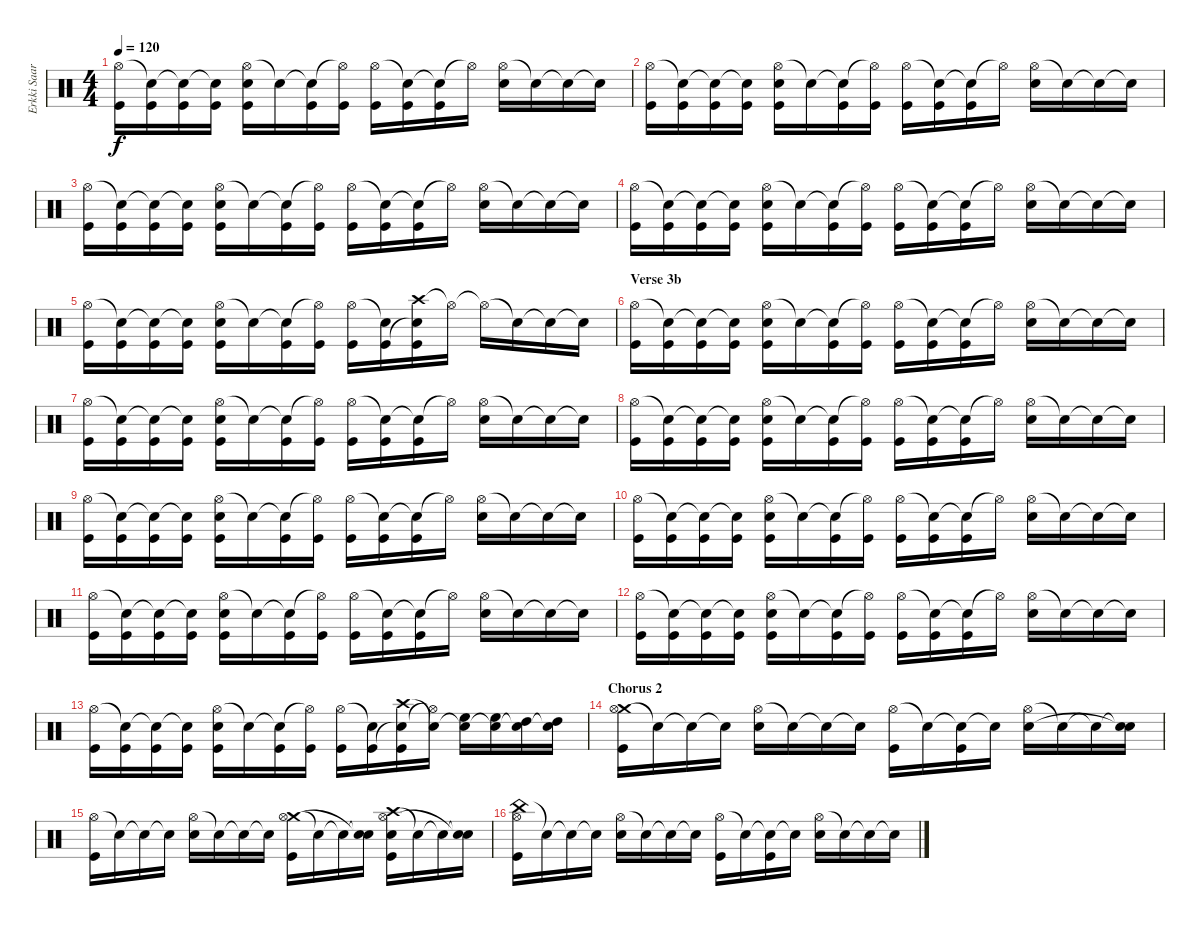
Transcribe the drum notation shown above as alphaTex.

\track ("Erkki Saarinen" "Erkki Saar") {instrument percussion}
\staff {score}
\articulation defaults
\ts (4 4)
\tempo 120
\clef neutral
\ks c
("Hi-Hat (open)" "Kick (hit)").16{dy f} ("Snare (hit)"{t} "Kick (hit)").16 ("Snare (hit)"{t} "Kick (hit)").16 ("Snare (hit)"{t} "Kick (hit)").16 ("Hi-Hat (open)" "Snare (hit) 2" "Kick (hit)").16 "Snare (hit)"{t}.16 ("Snare (hit)"{t} "Kick (hit)").16 ("Hi-Hat (open)"{t} "Kick (hit)").16 ("Hi-Hat (open)" "Kick (hit)").16 ("Snare (hit)"{t} "Kick (hit)").16 ("Snare (hit)"{t} "Kick (hit)").16 "Hi-Hat (open)"{t}.16 ("Hi-Hat (open)" "Snare (hit) 2").16 "Snare (hit)"{t}.16 "Snare (hit)"{t}.16 "Snare (hit)"{t}.16 |
("Hi-Hat (open)" "Kick (hit)").16 ("Snare (hit)"{t} "Kick (hit)").16 ("Snare (hit)"{t} "Kick (hit)").16 ("Snare (hit)"{t} "Kick (hit)").16 ("Hi-Hat (open)" "Snare (hit) 2" "Kick (hit)").16 "Snare (hit)"{t}.16 ("Snare (hit)"{t} "Kick (hit)").16 ("Hi-Hat (open)"{t} "Kick (hit)").16 ("Hi-Hat (open)" "Kick (hit)").16 ("Snare (hit)"{t} "Kick (hit)").16 ("Snare (hit)"{t} "Kick (hit)").16 "Hi-Hat (open)"{t}.16 ("Hi-Hat (open)" "Snare (hit) 2").16 "Snare (hit)"{t}.16 "Snare (hit)"{t}.16 "Snare (hit)"{t}.16 |
("Hi-Hat (open)" "Kick (hit)").16 ("Snare (hit)"{t} "Kick (hit)").16 ("Snare (hit)"{t} "Kick (hit)").16 ("Snare (hit)"{t} "Kick (hit)").16 ("Hi-Hat (open)" "Snare (hit) 2" "Kick (hit)").16 "Snare (hit)"{t}.16 ("Snare (hit)"{t} "Kick (hit)").16 ("Hi-Hat (open)"{t} "Kick (hit)").16 ("Hi-Hat (open)" "Kick (hit)").16 ("Snare (hit)"{t} "Kick (hit)").16 ("Snare (hit)"{t} "Kick (hit)").16 "Hi-Hat (open)"{t}.16 ("Hi-Hat (open)" "Snare (hit) 2").16 "Snare (hit)"{t}.16 "Snare (hit)"{t}.16 "Snare (hit)"{t}.16 |
("Hi-Hat (open)" "Kick (hit)").16 ("Snare (hit)"{t} "Kick (hit)").16 ("Snare (hit)"{t} "Kick (hit)").16 ("Snare (hit)"{t} "Kick (hit)").16 ("Hi-Hat (open)" "Snare (hit) 2" "Kick (hit)").16 "Snare (hit)"{t}.16 ("Snare (hit)"{t} "Kick (hit)").16 ("Hi-Hat (open)"{t} "Kick (hit)").16 ("Hi-Hat (open)" "Kick (hit)").16 ("Snare (hit)"{t} "Kick (hit)").16 ("Snare (hit)"{t} "Kick (hit)").16 "Hi-Hat (open)"{t}.16 ("Hi-Hat (open)" "Snare (hit) 2").16 "Snare (hit)"{t}.16 "Snare (hit)"{t}.16 "Snare (hit)"{t}.16 |
("Hi-Hat (open)" "Kick (hit)").16 ("Snare (hit)"{t} "Kick (hit)").16 ("Snare (hit)"{t} "Kick (hit)").16 ("Snare (hit)"{t} "Kick (hit)").16 ("Hi-Hat (open)" "Snare (hit) 2" "Kick (hit)").16 "Snare (hit)"{t}.16 ("Snare (hit)"{t} "Kick (hit)").16 ("Hi-Hat (open)"{t} "Kick (hit)").16 ("Hi-Hat (open)" "Kick (hit)").16 ("Snare (hit)"{t} "Kick (hit)").16 ("Crash high (hit)" "Snare (hit)"{t} "Kick (hit)").16 "Hi-Hat (open)"{t}.16 "Hi-Hat (open)"{t}.16 "Snare (hit)"{t}.16 "Snare (hit)"{t}.16 "Snare (hit)"{t}.16 |
\section ("" "Verse 3b")
("Hi-Hat (open)" "Kick (hit)").16 ("Snare (hit)"{t} "Kick (hit)").16 ("Snare (hit)"{t} "Kick (hit)").16 ("Snare (hit)"{t} "Kick (hit)").16 ("Hi-Hat (open)" "Snare (hit) 2" "Kick (hit)").16 "Snare (hit)"{t}.16 ("Snare (hit)"{t} "Kick (hit)").16 ("Hi-Hat (open)"{t} "Kick (hit)").16 ("Hi-Hat (open)" "Kick (hit)").16 ("Snare (hit)"{t} "Kick (hit)").16 ("Snare (hit)"{t} "Kick (hit)").16 "Hi-Hat (open)"{t}.16 ("Hi-Hat (open)" "Snare (hit) 2").16 "Snare (hit)"{t}.16 "Snare (hit)"{t}.16 "Snare (hit)"{t}.16 |
("Hi-Hat (open)" "Kick (hit)").16 ("Snare (hit)"{t} "Kick (hit)").16 ("Snare (hit)"{t} "Kick (hit)").16 ("Snare (hit)"{t} "Kick (hit)").16 ("Hi-Hat (open)" "Snare (hit) 2" "Kick (hit)").16 "Snare (hit)"{t}.16 ("Snare (hit)"{t} "Kick (hit)").16 ("Hi-Hat (open)"{t} "Kick (hit)").16 ("Hi-Hat (open)" "Kick (hit)").16 ("Snare (hit)"{t} "Kick (hit)").16 ("Snare (hit)"{t} "Kick (hit)").16 "Hi-Hat (open)"{t}.16 ("Hi-Hat (open)" "Snare (hit) 2").16 "Snare (hit)"{t}.16 "Snare (hit)"{t}.16 "Snare (hit)"{t}.16 |
("Hi-Hat (open)" "Kick (hit)").16 ("Snare (hit)"{t} "Kick (hit)").16 ("Snare (hit)"{t} "Kick (hit)").16 ("Snare (hit)"{t} "Kick (hit)").16 ("Hi-Hat (open)" "Snare (hit) 2" "Kick (hit)").16 "Snare (hit)"{t}.16 ("Snare (hit)"{t} "Kick (hit)").16 ("Hi-Hat (open)"{t} "Kick (hit)").16 ("Hi-Hat (open)" "Kick (hit)").16 ("Snare (hit)"{t} "Kick (hit)").16 ("Snare (hit)"{t} "Kick (hit)").16 "Hi-Hat (open)"{t}.16 ("Hi-Hat (open)" "Snare (hit) 2").16 "Snare (hit)"{t}.16 "Snare (hit)"{t}.16 "Snare (hit)"{t}.16 |
("Hi-Hat (open)" "Kick (hit)").16 ("Snare (hit)"{t} "Kick (hit)").16 ("Snare (hit)"{t} "Kick (hit)").16 ("Snare (hit)"{t} "Kick (hit)").16 ("Hi-Hat (open)" "Snare (hit) 2" "Kick (hit)").16 "Snare (hit)"{t}.16 ("Snare (hit)"{t} "Kick (hit)").16 ("Hi-Hat (open)"{t} "Kick (hit)").16 ("Hi-Hat (open)" "Kick (hit)").16 ("Snare (hit)"{t} "Kick (hit)").16 ("Snare (hit)"{t} "Kick (hit)").16 "Hi-Hat (open)"{t}.16 ("Hi-Hat (open)" "Snare (hit) 2").16 "Snare (hit)"{t}.16 "Snare (hit)"{t}.16 "Snare (hit)"{t}.16 |
("Hi-Hat (open)" "Kick (hit)").16 ("Snare (hit)"{t} "Kick (hit)").16 ("Snare (hit)"{t} "Kick (hit)").16 ("Snare (hit)"{t} "Kick (hit)").16 ("Hi-Hat (open)" "Snare (hit) 2" "Kick (hit)").16 "Snare (hit)"{t}.16 ("Snare (hit)"{t} "Kick (hit)").16 ("Hi-Hat (open)"{t} "Kick (hit)").16 ("Hi-Hat (open)" "Kick (hit)").16 ("Snare (hit)"{t} "Kick (hit)").16 ("Snare (hit)"{t} "Kick (hit)").16 "Hi-Hat (open)"{t}.16 ("Hi-Hat (open)" "Snare (hit) 2").16 "Snare (hit)"{t}.16 "Snare (hit)"{t}.16 "Snare (hit)"{t}.16 |
("Hi-Hat (open)" "Kick (hit)").16 ("Snare (hit)"{t} "Kick (hit)").16 ("Snare (hit)"{t} "Kick (hit)").16 ("Snare (hit)"{t} "Kick (hit)").16 ("Hi-Hat (open)" "Snare (hit) 2" "Kick (hit)").16 "Snare (hit)"{t}.16 ("Snare (hit)"{t} "Kick (hit)").16 ("Hi-Hat (open)"{t} "Kick (hit)").16 ("Hi-Hat (open)" "Kick (hit)").16 ("Snare (hit)"{t} "Kick (hit)").16 ("Snare (hit)"{t} "Kick (hit)").16 "Hi-Hat (open)"{t}.16 ("Hi-Hat (open)" "Snare (hit) 2").16 "Snare (hit)"{t}.16 "Snare (hit)"{t}.16 "Snare (hit)"{t}.16 |
("Hi-Hat (open)" "Kick (hit)").16 ("Snare (hit)"{t} "Kick (hit)").16 ("Snare (hit)"{t} "Kick (hit)").16 ("Snare (hit)"{t} "Kick (hit)").16 ("Hi-Hat (open)" "Snare (hit) 2" "Kick (hit)").16 "Snare (hit)"{t}.16 ("Snare (hit)"{t} "Kick (hit)").16 ("Hi-Hat (open)"{t} "Kick (hit)").16 ("Hi-Hat (open)" "Kick (hit)").16 ("Snare (hit)"{t} "Kick (hit)").16 ("Snare (hit)"{t} "Kick (hit)").16 "Hi-Hat (open)"{t}.16 ("Hi-Hat (open)" "Snare (hit) 2").16 "Snare (hit)"{t}.16 "Snare (hit)"{t}.16 "Snare (hit)"{t}.16 |
("Hi-Hat (open)" "Kick (hit)").16 ("Snare (hit)"{t} "Kick (hit)").16 ("Snare (hit)"{t} "Kick (hit)").16 ("Snare (hit)"{t} "Kick (hit)").16 ("Hi-Hat (open)" "Snare (hit) 2" "Kick (hit)").16 "Snare (hit)"{t}.16 ("Snare (hit)"{t} "Kick (hit)").16 ("Hi-Hat (open)"{t} "Kick (hit)").16 ("Hi-Hat (open)" "Kick (hit)").16 ("Snare (hit)"{t} "Kick (hit)").16 ("Crash high (hit)" "Snare (hit)"{t} "Kick (hit)").16 ("Snare (hit)"{t} "Hi-Hat (open)"{t}).16 ("Snare (hit)"{t} "High Floor Tom (hit)").16 ("Snare (hit)"{t} "High Floor Tom (hit)").16 ("Snare (hit)"{t} "High Tom (hit)").16 ("Snare (hit)"{t} "High Tom (hit)").16 |
\section ("" "Chorus 2")
("Crash medium (hit)" "Hi-Hat (open)" "Kick (hit)").16 "Snare (hit)"{t}.16 "Snare (hit)"{t}.16 "Snare (hit)"{t}.16 ("Hi-Hat (open)" "Snare (hit) 2").16 "Snare (hit)"{t}.16 "Snare (hit)"{t}.16 "Snare (hit)"{t}.16 ("Hi-Hat (open)" "Kick (hit)").16 "Snare (hit)"{t}.16 ("Snare (hit)"{t} "Kick (hit)").16 "Snare (hit)"{t}.16 ("Hi-Hat (open)" "Snare (hit) 2").16 "Snare (hit)"{t}.16 "Snare (hit)"{t}.16 ("Snare (hit)"{t} "Snare (hit)"{t}).16 |
("Hi-Hat (open)" "Kick (hit)").16 "Snare (hit)"{t}.16 "Snare (hit)"{t}.16 "Snare (hit)"{t}.16 ("Hi-Hat (open)" "Snare (hit) 2").16 "Snare (hit)"{t}.16 "Snare (hit)"{t}.16 "Snare (hit)"{t}.16 ("Crash medium (hit)" "Hi-Hat (open)" "Kick (hit)").16 "Snare (hit)"{t}.16 "Snare (hit)"{t}.16 ("Snare (hit)"{t} "Snare (hit)"{t}).16 ("Crash high (hit)" "Hi-Hat (open)" "Snare (hit) 2" "Kick (hit)").16 "Snare (hit)"{t}.16 "Snare (hit)"{t}.16 ("Snare (hit)"{t} "Snare (hit)"{t}).16 |
("China (hit)" "Hi-Hat (open)" "Kick (hit)").16 "Snare (hit)"{t}.16 "Snare (hit)"{t}.16 "Snare (hit)"{t}.16 ("Hi-Hat (open)" "Snare (hit) 2").16 "Snare (hit)"{t}.16 "Snare (hit)"{t}.16 "Snare (hit)"{t}.16 ("Hi-Hat (open)" "Kick (hit)").16 "Snare (hit)"{t}.16 ("Snare (hit)"{t} "Kick (hit)").16 "Snare (hit)"{t}.16 ("Hi-Hat (open)" "Snare (hit) 2").16 "Snare (hit)"{t}.16 "Snare (hit)"{t}.16 "Snare (hit)"{t}.16
